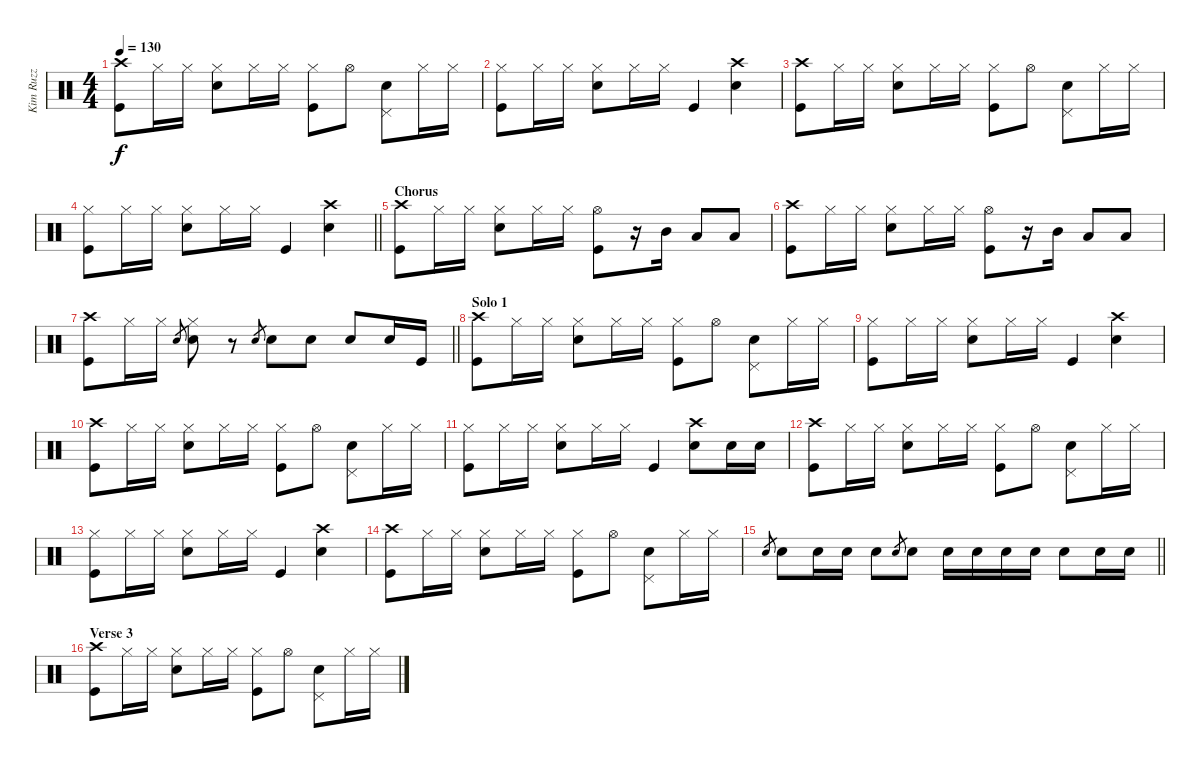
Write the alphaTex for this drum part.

\track ("Kim Ruzz" "Kim Ruzz") {instrument percussion}
\staff {score}
\articulation defaults
\ts (4 4)
\tempo 130
\clef neutral
\ks c
("Crash high (hit)" "Kick (hit)").8{dy f} "Hi-Hat (closed)".16 "Hi-Hat (closed)".16 ("Hi-Hat (closed)" "Snare (hit) 2").8 "Hi-Hat (closed)".16 "Hi-Hat (closed)".16 ("Hi-Hat (closed)" "Kick (hit)").8 "Hi-Hat (open)".8 ("Pedal Hi-Hat (hit)" "Snare (hit) 2").8 "Hi-Hat (closed)".16 "Hi-Hat (closed)".16 |
("Hi-Hat (closed)" "Kick (hit)").8 "Hi-Hat (closed)".16 "Hi-Hat (closed)".16 ("Hi-Hat (closed)" "Snare (hit) 2").8 "Hi-Hat (closed)".16 "Hi-Hat (closed)".16 "Kick (hit)".4 ("Crash high (hit)" "Snare (hit) 2").4 |
("Crash high (hit)" "Kick (hit)").8 "Hi-Hat (closed)".16 "Hi-Hat (closed)".16 ("Hi-Hat (closed)" "Snare (hit) 2").8 "Hi-Hat (closed)".16 "Hi-Hat (closed)".16 ("Hi-Hat (closed)" "Kick (hit)").8 "Hi-Hat (open)".8 ("Pedal Hi-Hat (hit)" "Snare (hit) 2").8 "Hi-Hat (closed)".16 "Hi-Hat (closed)".16 |
\barLineRight lightlight
("Hi-Hat (closed)" "Kick (hit)").8 "Hi-Hat (closed)".16 "Hi-Hat (closed)".16 ("Hi-Hat (closed)" "Snare (hit) 2").8 "Hi-Hat (closed)".16 "Hi-Hat (closed)".16 "Kick (hit)".4 ("Crash high (hit)" "Snare (hit) 2").4 |
\section ("" "Chorus")
("Crash high (hit)" "Kick (hit)").8 "Hi-Hat (closed)".16 "Hi-Hat (closed)".16 ("Hi-Hat (closed)" "Snare (hit) 2").8 "Hi-Hat (closed)".16 "Hi-Hat (closed)".16 ("Hi-Hat (open)" "Kick (hit)").8 r.16 "Mid Tom (hit)".16 "Low Tom (hit)".8 "Low Tom (hit)".8 |
("Crash high (hit)" "Kick (hit)").8 "Hi-Hat (closed)".16 "Hi-Hat (closed)".16 ("Hi-Hat (closed)" "Snare (hit) 2").8 "Hi-Hat (closed)".16 "Hi-Hat (closed)".16 ("Hi-Hat (open)" "Kick (hit)").8 r.16 "Mid Tom (hit)".16 "Low Tom (hit)".8 "Low Tom (hit)".8 |
\barLineRight lightlight
("Crash high (hit)" "Kick (hit)").8 "Hi-Hat (closed)".16 "Hi-Hat (closed)".16 "Snare (hit) 2".8{gr} ("Hi-Hat (closed)" "Snare (hit) 2").8 r.8 "Snare (hit) 2".8{gr} "Snare (hit) 2".8 "Snare (hit) 2".8 "Snare (hit) 2".8 "Snare (hit) 2".16 "Kick (hit)".16 |
\section ("" "Solo 1")
("Crash high (hit)" "Kick (hit)").8 "Hi-Hat (closed)".16 "Hi-Hat (closed)".16 ("Hi-Hat (closed)" "Snare (hit) 2").8 "Hi-Hat (closed)".16 "Hi-Hat (closed)".16 ("Hi-Hat (closed)" "Kick (hit)").8 "Hi-Hat (open)".8 ("Pedal Hi-Hat (hit)" "Snare (hit) 2").8 "Hi-Hat (closed)".16 "Hi-Hat (closed)".16 |
("Hi-Hat (closed)" "Kick (hit)").8 "Hi-Hat (closed)".16 "Hi-Hat (closed)".16 ("Hi-Hat (closed)" "Snare (hit) 2").8 "Hi-Hat (closed)".16 "Hi-Hat (closed)".16 "Kick (hit)".4 ("Crash high (hit)" "Snare (hit) 2").4 |
("Crash high (hit)" "Kick (hit)").8 "Hi-Hat (closed)".16 "Hi-Hat (closed)".16 ("Hi-Hat (closed)" "Snare (hit) 2").8 "Hi-Hat (closed)".16 "Hi-Hat (closed)".16 ("Hi-Hat (closed)" "Kick (hit)").8 "Hi-Hat (open)".8 ("Pedal Hi-Hat (hit)" "Snare (hit) 2").8 "Hi-Hat (closed)".16 "Hi-Hat (closed)".16 |
("Hi-Hat (closed)" "Kick (hit)").8 "Hi-Hat (closed)".16 "Hi-Hat (closed)".16 ("Hi-Hat (closed)" "Snare (hit) 2").8 "Hi-Hat (closed)".16 "Hi-Hat (closed)".16 "Kick (hit)".4 ("Crash high (hit)" "Snare (hit) 2").8 "Snare (hit) 2".16 "Snare (hit) 2".16 |
("Crash high (hit)" "Kick (hit)").8 "Hi-Hat (closed)".16 "Hi-Hat (closed)".16 ("Hi-Hat (closed)" "Snare (hit) 2").8 "Hi-Hat (closed)".16 "Hi-Hat (closed)".16 ("Hi-Hat (closed)" "Kick (hit)").8 "Hi-Hat (open)".8 ("Pedal Hi-Hat (hit)" "Snare (hit) 2").8 "Hi-Hat (closed)".16 "Hi-Hat (closed)".16 |
("Hi-Hat (closed)" "Kick (hit)").8 "Hi-Hat (closed)".16 "Hi-Hat (closed)".16 ("Hi-Hat (closed)" "Snare (hit) 2").8 "Hi-Hat (closed)".16 "Hi-Hat (closed)".16 "Kick (hit)".4 ("Crash high (hit)" "Snare (hit) 2").4 |
("Crash high (hit)" "Kick (hit)").8 "Hi-Hat (closed)".16 "Hi-Hat (closed)".16 ("Hi-Hat (closed)" "Snare (hit) 2").8 "Hi-Hat (closed)".16 "Hi-Hat (closed)".16 ("Hi-Hat (closed)" "Kick (hit)").8 "Hi-Hat (open)".8 ("Pedal Hi-Hat (hit)" "Snare (hit) 2").8 "Hi-Hat (closed)".16 "Hi-Hat (closed)".16 |
\barLineRight lightlight "Snare (hit) 2".8{gr} "Snare (hit) 2".8 "Snare (hit) 2".16 "Snare (hit) 2".16 "Snare (hit) 2".8 "Snare (hit) 2".8{gr} "Snare (hit) 2".8 "Snare (hit) 2".16 "Snare (hit) 2".16 "Snare (hit) 2".16 "Snare (hit) 2".16 "Snare (hit) 2".8 "Snare (hit) 2".16 "Snare (hit) 2".16
|
\section ("" "Verse 3")
("Crash high (hit)" "Kick (hit)").8 "Hi-Hat (closed)".16 "Hi-Hat (closed)".16 ("Hi-Hat (closed)" "Snare (hit) 2").8 "Hi-Hat (closed)".16 "Hi-Hat (closed)".16 ("Hi-Hat (closed)" "Kick (hit)").8 "Hi-Hat (open)".8 ("Pedal Hi-Hat (hit)" "Snare (hit) 2").8 "Hi-Hat (closed)".16 "Hi-Hat (closed)".16
